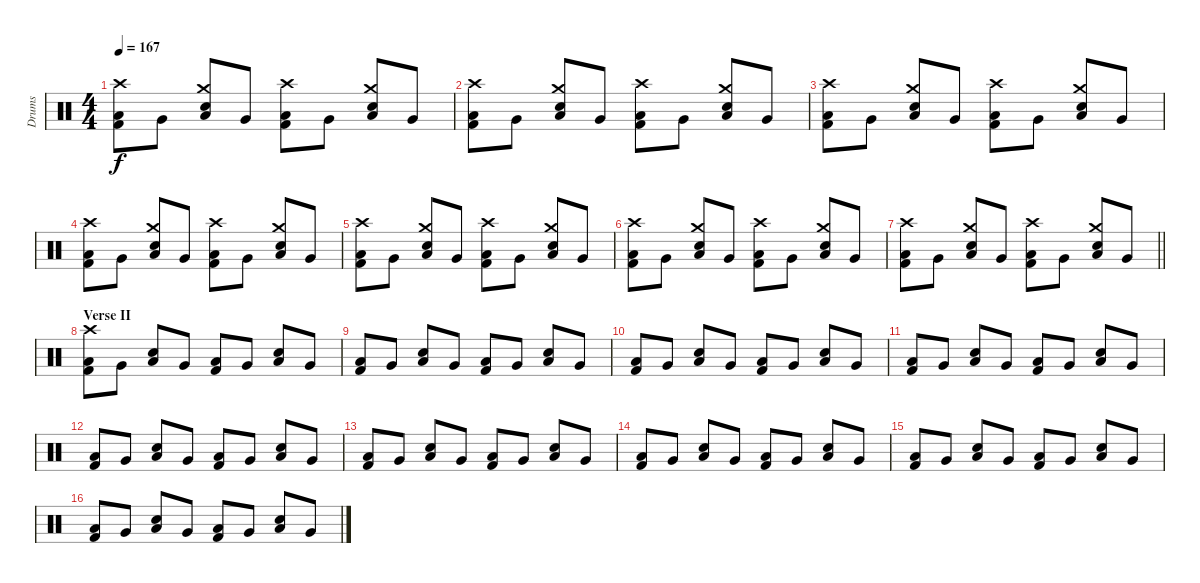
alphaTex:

\track ("Drums" "Drums") {instrument percussion}
\staff {score}
\articulation defaults
\ts (4 4)
\tempo 167
\clef neutral
\ks c
("Crash high (hit)" "Low Floor Tom (hit)" "Kick (hit) 2").8{dy f} "Very Low Tom (hit)".8 ("Crash medium (hit)" "Low Floor Tom (hit)" "Snare (hit) 2").8 "Very Low Tom (hit)".8 ("Crash high (hit)" "Low Floor Tom (hit)" "Kick (hit) 2").8 "Very Low Tom (hit)".8 ("Crash medium (hit)" "Low Floor Tom (hit)" "Snare (hit) 2").8 "Very Low Tom (hit)".8 |
("Crash high (hit)" "Low Floor Tom (hit)" "Kick (hit) 2").8 "Very Low Tom (hit)".8 ("Crash medium (hit)" "Low Floor Tom (hit)" "Snare (hit) 2").8 "Very Low Tom (hit)".8 ("Crash high (hit)" "Low Floor Tom (hit)" "Kick (hit) 2").8 "Very Low Tom (hit)".8 ("Crash medium (hit)" "Low Floor Tom (hit)" "Snare (hit) 2").8 "Very Low Tom (hit)".8 |
("Crash high (hit)" "Low Floor Tom (hit)" "Kick (hit) 2").8 "Very Low Tom (hit)".8 ("Crash medium (hit)" "Low Floor Tom (hit)" "Snare (hit) 2").8 "Very Low Tom (hit)".8 ("Crash high (hit)" "Low Floor Tom (hit)" "Kick (hit) 2").8 "Very Low Tom (hit)".8 ("Crash medium (hit)" "Low Floor Tom (hit)" "Snare (hit) 2").8 "Very Low Tom (hit)".8 |
("Crash high (hit)" "Low Floor Tom (hit)" "Kick (hit) 2").8 "Very Low Tom (hit)".8 ("Crash medium (hit)" "Low Floor Tom (hit)" "Snare (hit) 2").8 "Very Low Tom (hit)".8 ("Crash high (hit)" "Low Floor Tom (hit)" "Kick (hit) 2").8 "Very Low Tom (hit)".8 ("Crash medium (hit)" "Low Floor Tom (hit)" "Snare (hit) 2").8 "Very Low Tom (hit)".8 |
("Crash high (hit)" "Low Floor Tom (hit)" "Kick (hit) 2").8 "Very Low Tom (hit)".8 ("Crash medium (hit)" "Low Floor Tom (hit)" "Snare (hit) 2").8 "Very Low Tom (hit)".8 ("Crash high (hit)" "Low Floor Tom (hit)" "Kick (hit) 2").8 "Very Low Tom (hit)".8 ("Crash medium (hit)" "Low Floor Tom (hit)" "Snare (hit) 2").8 "Very Low Tom (hit)".8 |
("Crash high (hit)" "Low Floor Tom (hit)" "Kick (hit) 2").8 "Very Low Tom (hit)".8 ("Crash medium (hit)" "Low Floor Tom (hit)" "Snare (hit) 2").8 "Very Low Tom (hit)".8 ("Crash high (hit)" "Low Floor Tom (hit)" "Kick (hit) 2").8 "Very Low Tom (hit)".8 ("Crash medium (hit)" "Low Floor Tom (hit)" "Snare (hit) 2").8 "Very Low Tom (hit)".8 |
\barLineRight lightlight
("Crash high (hit)" "Low Floor Tom (hit)" "Kick (hit) 2").8 "Very Low Tom (hit)".8 ("Crash medium (hit)" "Low Floor Tom (hit)" "Snare (hit) 2").8 "Very Low Tom (hit)".8 ("Crash high (hit)" "Low Floor Tom (hit)" "Kick (hit) 2").8 "Very Low Tom (hit)".8 ("Crash medium (hit)" "Low Floor Tom (hit)" "Snare (hit) 2").8 "Very Low Tom (hit)".8 |
\section ("" "Verse II")
("Crash high (hit)" "Low Floor Tom (hit)" "Kick (hit) 2").8 "Very Low Tom (hit)".8 ("Low Floor Tom (hit)" "Snare (hit) 2").8 "Very Low Tom (hit)".8 ("Low Floor Tom (hit)" "Kick (hit) 2").8 "Very Low Tom (hit)".8 ("Low Floor Tom (hit)" "Snare (hit) 2").8 "Very Low Tom (hit)".8 |
("Low Floor Tom (hit)" "Kick (hit) 2").8 "Very Low Tom (hit)".8 ("Low Floor Tom (hit)" "Snare (hit) 2").8 "Very Low Tom (hit)".8 ("Low Floor Tom (hit)" "Kick (hit) 2").8 "Very Low Tom (hit)".8 ("Low Floor Tom (hit)" "Snare (hit) 2").8 "Very Low Tom (hit)".8 |
("Low Floor Tom (hit)" "Kick (hit) 2").8 "Very Low Tom (hit)".8 ("Low Floor Tom (hit)" "Snare (hit) 2").8 "Very Low Tom (hit)".8 ("Low Floor Tom (hit)" "Kick (hit) 2").8 "Very Low Tom (hit)".8 ("Low Floor Tom (hit)" "Snare (hit) 2").8 "Very Low Tom (hit)".8 |
("Low Floor Tom (hit)" "Kick (hit) 2").8 "Very Low Tom (hit)".8 ("Low Floor Tom (hit)" "Snare (hit) 2").8 "Very Low Tom (hit)".8 ("Low Floor Tom (hit)" "Kick (hit) 2").8 "Very Low Tom (hit)".8 ("Low Floor Tom (hit)" "Snare (hit) 2").8 "Very Low Tom (hit)".8 |
("Low Floor Tom (hit)" "Kick (hit) 2").8 "Very Low Tom (hit)".8 ("Low Floor Tom (hit)" "Snare (hit) 2").8 "Very Low Tom (hit)".8 ("Low Floor Tom (hit)" "Kick (hit) 2").8 "Very Low Tom (hit)".8 ("Low Floor Tom (hit)" "Snare (hit) 2").8 "Very Low Tom (hit)".8 |
("Low Floor Tom (hit)" "Kick (hit) 2").8 "Very Low Tom (hit)".8 ("Low Floor Tom (hit)" "Snare (hit) 2").8 "Very Low Tom (hit)".8 ("Low Floor Tom (hit)" "Kick (hit) 2").8 "Very Low Tom (hit)".8 ("Low Floor Tom (hit)" "Snare (hit) 2").8 "Very Low Tom (hit)".8 |
("Low Floor Tom (hit)" "Kick (hit) 2").8 "Very Low Tom (hit)".8 ("Low Floor Tom (hit)" "Snare (hit) 2").8 "Very Low Tom (hit)".8 ("Low Floor Tom (hit)" "Kick (hit) 2").8 "Very Low Tom (hit)".8 ("Low Floor Tom (hit)" "Snare (hit) 2").8 "Very Low Tom (hit)".8 |
("Low Floor Tom (hit)" "Kick (hit) 2").8 "Very Low Tom (hit)".8 ("Low Floor Tom (hit)" "Snare (hit) 2").8 "Very Low Tom (hit)".8 ("Low Floor Tom (hit)" "Kick (hit) 2").8 "Very Low Tom (hit)".8 ("Low Floor Tom (hit)" "Snare (hit) 2").8 "Very Low Tom (hit)".8 |
("Low Floor Tom (hit)" "Kick (hit) 2").8 "Very Low Tom (hit)".8 ("Low Floor Tom (hit)" "Snare (hit) 2").8 "Very Low Tom (hit)".8 ("Low Floor Tom (hit)" "Kick (hit) 2").8 "Very Low Tom (hit)".8 ("Low Floor Tom (hit)" "Snare (hit) 2").8 "Very Low Tom (hit)".8
